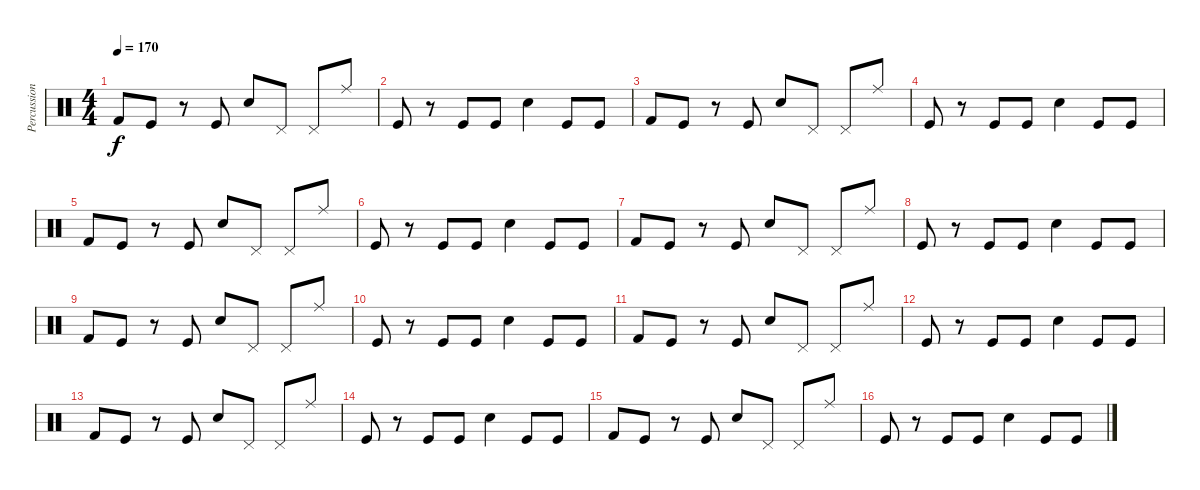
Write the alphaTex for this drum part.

\track ("Percussion" "Percussion") {instrument percussion}
\staff {score}
\articulation defaults
\ts (4 4)
\tempo 170
\clef neutral
\ks c "Kick (hit) 2".8{dy f} "Kick (hit)".8
r.8 "Kick (hit)".8 "Electric Snare (hit)".8 "Pedal Hi-Hat (hit)".8 "Pedal Hi-Hat (hit)".8 "Ride (middle)".8 |
"Kick (hit)".8 r.8 "Kick (hit)".8 "Kick (hit)".8 "Electric Snare (hit)".4 "Kick (hit)".8 "Kick (hit)".8 |
"Kick (hit) 2".8 "Kick (hit)".8 r.8 "Kick (hit)".8 "Electric Snare (hit)".8 "Pedal Hi-Hat (hit)".8 "Pedal Hi-Hat (hit)".8 "Ride (middle)".8 |
"Kick (hit)".8 r.8 "Kick (hit)".8 "Kick (hit)".8 "Electric Snare (hit)".4 "Kick (hit)".8 "Kick (hit)".8 |
"Kick (hit) 2".8 "Kick (hit)".8 r.8 "Kick (hit)".8 "Electric Snare (hit)".8 "Pedal Hi-Hat (hit)".8 "Pedal Hi-Hat (hit)".8 "Ride (middle)".8 |
"Kick (hit)".8 r.8 "Kick (hit)".8 "Kick (hit)".8 "Electric Snare (hit)".4 "Kick (hit)".8 "Kick (hit)".8 |
"Kick (hit) 2".8 "Kick (hit)".8 r.8 "Kick (hit)".8 "Electric Snare (hit)".8 "Pedal Hi-Hat (hit)".8 "Pedal Hi-Hat (hit)".8 "Ride (middle)".8 |
"Kick (hit)".8 r.8 "Kick (hit)".8 "Kick (hit)".8 "Electric Snare (hit)".4 "Kick (hit)".8 "Kick (hit)".8 |
"Kick (hit) 2".8 "Kick (hit)".8 r.8 "Kick (hit)".8 "Electric Snare (hit)".8 "Pedal Hi-Hat (hit)".8 "Pedal Hi-Hat (hit)".8 "Ride (middle)".8 |
"Kick (hit)".8 r.8 "Kick (hit)".8 "Kick (hit)".8 "Electric Snare (hit)".4 "Kick (hit)".8 "Kick (hit)".8 |
"Kick (hit) 2".8 "Kick (hit)".8 r.8 "Kick (hit)".8 "Electric Snare (hit)".8 "Pedal Hi-Hat (hit)".8 "Pedal Hi-Hat (hit)".8 "Ride (middle)".8 |
"Kick (hit)".8 r.8 "Kick (hit)".8 "Kick (hit)".8 "Electric Snare (hit)".4 "Kick (hit)".8 "Kick (hit)".8 |
"Kick (hit) 2".8 "Kick (hit)".8 r.8 "Kick (hit)".8 "Electric Snare (hit)".8 "Pedal Hi-Hat (hit)".8 "Pedal Hi-Hat (hit)".8 "Ride (middle)".8 |
"Kick (hit)".8 r.8 "Kick (hit)".8 "Kick (hit)".8 "Electric Snare (hit)".4 "Kick (hit)".8 "Kick (hit)".8 |
"Kick (hit) 2".8 "Kick (hit)".8 r.8 "Kick (hit)".8 "Electric Snare (hit)".8 "Pedal Hi-Hat (hit)".8 "Pedal Hi-Hat (hit)".8 "Ride (middle)".8 |
"Kick (hit)".8 r.8 "Kick (hit)".8 "Kick (hit)".8 "Electric Snare (hit)".4 "Kick (hit)".8 "Kick (hit)".8
